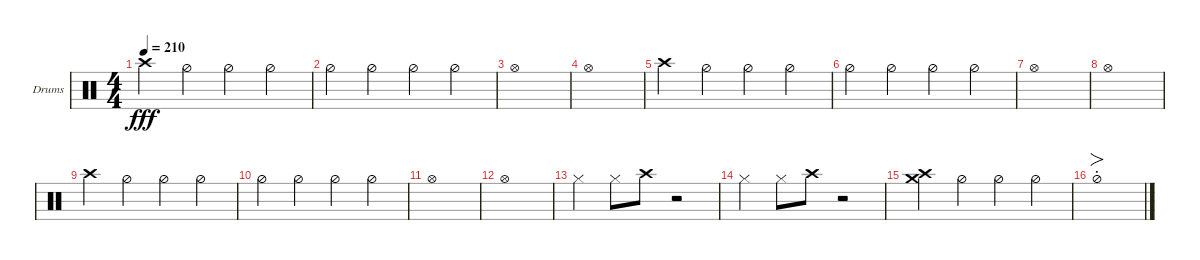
\defaultSystemsLayout 4
\bracketExtendMode groupsimilarinstruments
\firstSystemTrackNameOrientation horizontal
\otherSystemsTrackNameOrientation horizontal
\track ("Helders" "Drums") {instrument percussion}
\staff {score}
\articulation defaults
\ts (4 4)
\tempo 210
\clef neutral
\ks c "Crash high (hit)".4{dy fff} "Hi-Hat (half)".4 "Hi-Hat (half)".4 "Hi-Hat (half)".4
|
"Hi-Hat (half)".4 "Hi-Hat (half)".4 "Hi-Hat (half)".4 "Hi-Hat (half)".4 |
"Hi-Hat (open)".1 |
"Hi-Hat (open)".1 |
"Crash high (hit)".4 "Hi-Hat (half)".4 "Hi-Hat (half)".4 "Hi-Hat (half)".4 |
"Hi-Hat (half)".4 "Hi-Hat (half)".4 "Hi-Hat (half)".4 "Hi-Hat (half)".4 |
"Hi-Hat (open)".1 |
"Hi-Hat (open)".1 |
"Crash high (hit)".4 "Hi-Hat (half)".4 "Hi-Hat (half)".4 "Hi-Hat (half)".4 |
"Hi-Hat (half)".4 "Hi-Hat (half)".4 "Hi-Hat (half)".4 "Hi-Hat (half)".4 |
"Hi-Hat (open)".1 |
"Hi-Hat (open)".1 |
"Hi-Hat (closed)".4 "Hi-Hat (closed)".8 "Crash high (hit)".8 r.2 |
"Hi-Hat (closed)".4 "Hi-Hat (closed)".8 "Crash high (hit)".8 r.2 |
("Crash high (hit)" "Crash medium (hit)").4 "Hi-Hat (half)".4 "Hi-Hat (half)".4 "Hi-Hat (half)".4 |
"Hi-Hat (half)"{st}.1{fo}
